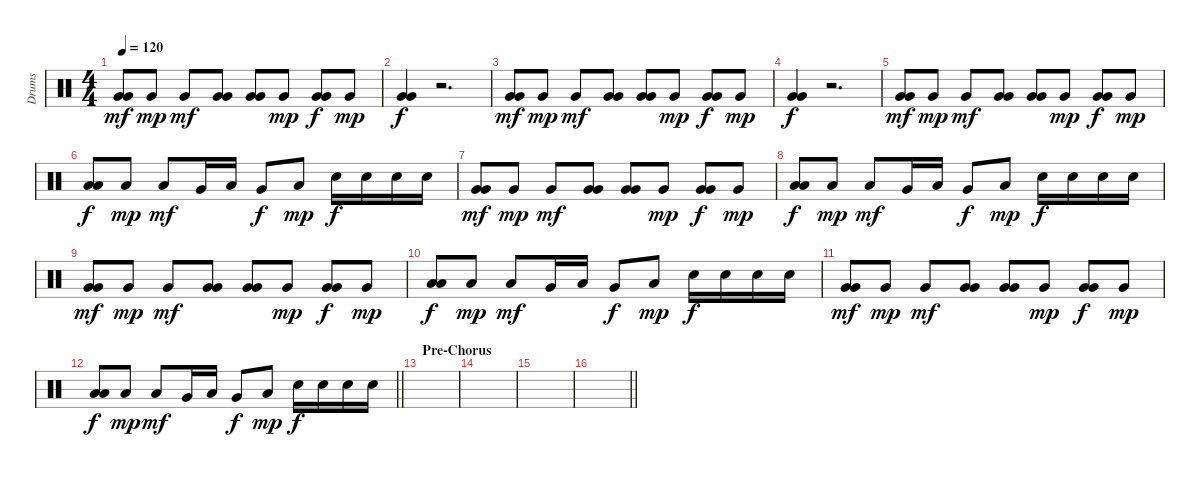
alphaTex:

\track ("Drums" "Drums") {instrument percussion}
\staff {score}
\articulation defaults
\ts (4 4)
\tempo 120
\clef neutral
\ks c
("Very Low Tom (hit)" "Very Low Tom (hit)").8{dy mf} "Very Low Tom (hit)".8{dy mp} "Very Low Tom (hit)".8{dy mf} ("Very Low Tom (hit)" "Very Low Tom (hit)").8 ("Very Low Tom (hit)" "Very Low Tom (hit)").8 "Very Low Tom (hit)".8{dy mp} ("Very Low Tom (hit)" "Very Low Tom (hit)").8{dy f} "Very Low Tom (hit)".8{dy mp} |
("Very Low Tom (hit)" "Very Low Tom (hit)").4{dy f} r.2{d} |
("Very Low Tom (hit)" "Very Low Tom (hit)").8{dy mf} "Very Low Tom (hit)".8{dy mp} "Very Low Tom (hit)".8{dy mf} ("Very Low Tom (hit)" "Very Low Tom (hit)").8 ("Very Low Tom (hit)" "Very Low Tom (hit)").8 "Very Low Tom (hit)".8{dy mp} ("Very Low Tom (hit)" "Very Low Tom (hit)").8{dy f} "Very Low Tom (hit)".8{dy mp} |
("Very Low Tom (hit)" "Very Low Tom (hit)").4{dy f} r.2{d} |
("Very Low Tom (hit)" "Very Low Tom (hit)").8{dy mf} "Very Low Tom (hit)".8{dy mp} "Very Low Tom (hit)".8{dy mf} ("Very Low Tom (hit)" "Very Low Tom (hit)").8 ("Very Low Tom (hit)" "Very Low Tom (hit)").8 "Very Low Tom (hit)".8{dy mp} ("Very Low Tom (hit)" "Very Low Tom (hit)").8{dy f} "Very Low Tom (hit)".8{dy mp} |
("Low Floor Tom (hit)" "Low Floor Tom (hit)").8{dy f} "Low Floor Tom (hit)".8{dy mp} "Low Floor Tom (hit)".8{dy mf} "Very Low Tom (hit)".16 "Low Floor Tom (hit)".16 "Very Low Tom (hit)".8{dy f} "Low Floor Tom (hit)".8{dy mp} "Snare (hit) 2".16{dy f} "Snare (hit) 2".16 "Snare (hit) 2".16 "Snare (hit) 2".16 |
("Very Low Tom (hit)" "Very Low Tom (hit)").8{dy mf} "Very Low Tom (hit)".8{dy mp} "Very Low Tom (hit)".8{dy mf} ("Very Low Tom (hit)" "Very Low Tom (hit)").8 ("Very Low Tom (hit)" "Very Low Tom (hit)").8 "Very Low Tom (hit)".8{dy mp} ("Very Low Tom (hit)" "Very Low Tom (hit)").8{dy f} "Very Low Tom (hit)".8{dy mp} |
("Low Floor Tom (hit)" "Low Floor Tom (hit)").8{dy f} "Low Floor Tom (hit)".8{dy mp} "Low Floor Tom (hit)".8{dy mf} "Very Low Tom (hit)".16 "Low Floor Tom (hit)".16 "Very Low Tom (hit)".8{dy f} "Low Floor Tom (hit)".8{dy mp} "Snare (hit) 2".16{dy f} "Snare (hit) 2".16 "Snare (hit) 2".16 "Snare (hit) 2".16 |
("Very Low Tom (hit)" "Very Low Tom (hit)").8{dy mf} "Very Low Tom (hit)".8{dy mp} "Very Low Tom (hit)".8{dy mf} ("Very Low Tom (hit)" "Very Low Tom (hit)").8 ("Very Low Tom (hit)" "Very Low Tom (hit)").8 "Very Low Tom (hit)".8{dy mp} ("Very Low Tom (hit)" "Very Low Tom (hit)").8{dy f} "Very Low Tom (hit)".8{dy mp} |
("Low Floor Tom (hit)" "Low Floor Tom (hit)").8{dy f} "Low Floor Tom (hit)".8{dy mp} "Low Floor Tom (hit)".8{dy mf} "Very Low Tom (hit)".16 "Low Floor Tom (hit)".16 "Very Low Tom (hit)".8{dy f} "Low Floor Tom (hit)".8{dy mp} "Snare (hit) 2".16{dy f} "Snare (hit) 2".16 "Snare (hit) 2".16 "Snare (hit) 2".16 |
("Very Low Tom (hit)" "Very Low Tom (hit)").8{dy mf} "Very Low Tom (hit)".8{dy mp} "Very Low Tom (hit)".8{dy mf} ("Very Low Tom (hit)" "Very Low Tom (hit)").8 ("Very Low Tom (hit)" "Very Low Tom (hit)").8 "Very Low Tom (hit)".8{dy mp} ("Very Low Tom (hit)" "Very Low Tom (hit)").8{dy f} "Very Low Tom (hit)".8{dy mp} |
\barLineRight lightlight
("Low Floor Tom (hit)" "Low Floor Tom (hit)").8{dy f} "Low Floor Tom (hit)".8{dy mp} "Low Floor Tom (hit)".8{dy mf} "Very Low Tom (hit)".16 "Low Floor Tom (hit)".16 "Very Low Tom (hit)".8{dy f} "Low Floor Tom (hit)".8{dy mp} "Snare (hit) 2".16{dy f} "Snare (hit) 2".16 "Snare (hit) 2".16 "Snare (hit) 2".16 |
\section ("" "Pre-Chorus")
|
|
|
\barLineRight lightlight
